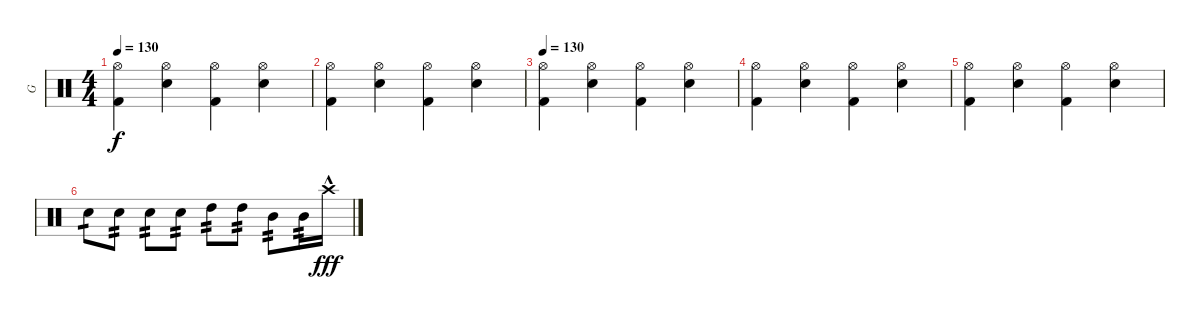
\track ("G" "G") {instrument percussion}
\staff
\articulation defaults
\ts (4 4)
\tempo 130
\clef neutral
\ks c
("Hi-Hat (open)" "Kick (hit) 2").4{dy f} ("Hi-Hat (open)" "Electric Snare (hit)").4 ("Hi-Hat (open)" "Kick (hit) 2").4 ("Hi-Hat (open)" "Electric Snare (hit)").4 |
("Hi-Hat (open)" "Kick (hit) 2").4 ("Hi-Hat (open)" "Electric Snare (hit)").4 ("Hi-Hat (open)" "Kick (hit) 2").4 ("Hi-Hat (open)" "Electric Snare (hit)").4 |
\tempo 130
("Hi-Hat (open)" "Kick (hit) 2").4 ("Hi-Hat (open)" "Electric Snare (hit)").4 ("Hi-Hat (open)" "Kick (hit) 2").4 ("Hi-Hat (open)" "Electric Snare (hit)").4 |
("Hi-Hat (open)" "Kick (hit) 2").4 ("Hi-Hat (open)" "Electric Snare (hit)").4 ("Hi-Hat (open)" "Kick (hit) 2").4 ("Hi-Hat (open)" "Electric Snare (hit)").4 |
("Hi-Hat (open)" "Kick (hit) 2").4 ("Hi-Hat (open)" "Electric Snare (hit)").4 ("Hi-Hat (open)" "Kick (hit) 2").4 ("Hi-Hat (open)" "Electric Snare (hit)").4 |
"Electric Snare (hit)".8{tp 1} "Electric Snare (hit)".8{tp 2} "Electric Snare (hit)".8{tp 2} "Electric Snare (hit)".8{tp 2} "High Tom (hit)".8{tp 2} "High Tom (hit)".8{tp 2} "Mid Tom (hit)".8{tp 2} "Mid Tom (hit)".16{tp 2} "Crash high (hit)"{hac}.16{dy fff}
